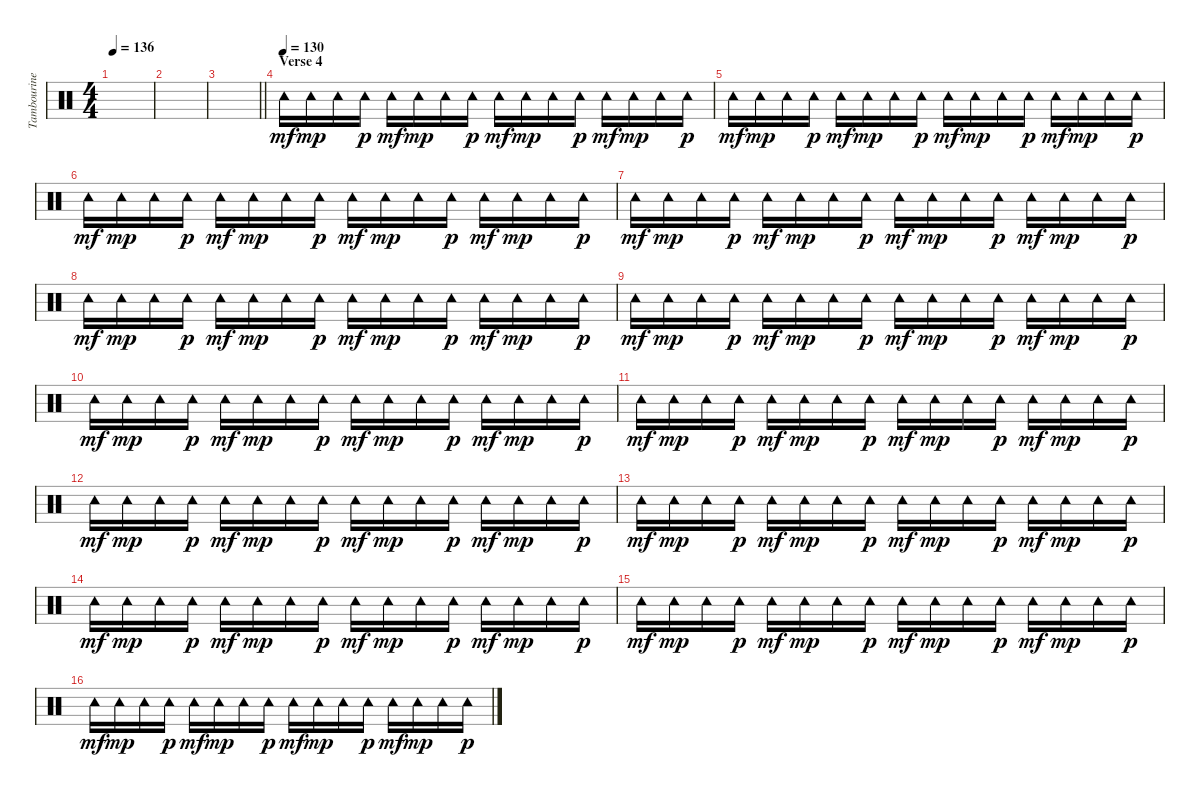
\track ("Tambourine" "Tambourine") {instrument percussion}
\staff {score}
\articulation defaults
\ts (4 4)
\tempo 136
\clef neutral
\ks c
|
|
\barLineRight lightlight
|
\section ("" "Verse 4")
\tempo (130)
"Tambourine (hit)".16{dy mf} "Tambourine (hit)".16{dy mp} "Tambourine (hit)".16 "Tambourine (hit)".16{dy p} "Tambourine (hit)".16{dy mf} "Tambourine (hit)".16{dy mp} "Tambourine (hit)".16 "Tambourine (hit)".16{dy p} "Tambourine (hit)".16{dy mf} "Tambourine (hit)".16{dy mp} "Tambourine (hit)".16 "Tambourine (hit)".16{dy p} "Tambourine (hit)".16{dy mf} "Tambourine (hit)".16{dy mp} "Tambourine (hit)".16 "Tambourine (hit)".16{dy p} |
"Tambourine (hit)".16{dy mf} "Tambourine (hit)".16{dy mp} "Tambourine (hit)".16 "Tambourine (hit)".16{dy p} "Tambourine (hit)".16{dy mf} "Tambourine (hit)".16{dy mp} "Tambourine (hit)".16 "Tambourine (hit)".16{dy p} "Tambourine (hit)".16{dy mf} "Tambourine (hit)".16{dy mp} "Tambourine (hit)".16 "Tambourine (hit)".16{dy p} "Tambourine (hit)".16{dy mf} "Tambourine (hit)".16{dy mp} "Tambourine (hit)".16 "Tambourine (hit)".16{dy p} |
"Tambourine (hit)".16{dy mf} "Tambourine (hit)".16{dy mp} "Tambourine (hit)".16 "Tambourine (hit)".16{dy p} "Tambourine (hit)".16{dy mf} "Tambourine (hit)".16{dy mp} "Tambourine (hit)".16 "Tambourine (hit)".16{dy p} "Tambourine (hit)".16{dy mf} "Tambourine (hit)".16{dy mp} "Tambourine (hit)".16 "Tambourine (hit)".16{dy p} "Tambourine (hit)".16{dy mf} "Tambourine (hit)".16{dy mp} "Tambourine (hit)".16 "Tambourine (hit)".16{dy p} |
"Tambourine (hit)".16{dy mf} "Tambourine (hit)".16{dy mp} "Tambourine (hit)".16 "Tambourine (hit)".16{dy p} "Tambourine (hit)".16{dy mf} "Tambourine (hit)".16{dy mp} "Tambourine (hit)".16 "Tambourine (hit)".16{dy p} "Tambourine (hit)".16{dy mf} "Tambourine (hit)".16{dy mp} "Tambourine (hit)".16 "Tambourine (hit)".16{dy p} "Tambourine (hit)".16{dy mf} "Tambourine (hit)".16{dy mp} "Tambourine (hit)".16 "Tambourine (hit)".16{dy p} |
"Tambourine (hit)".16{dy mf} "Tambourine (hit)".16{dy mp} "Tambourine (hit)".16 "Tambourine (hit)".16{dy p} "Tambourine (hit)".16{dy mf} "Tambourine (hit)".16{dy mp} "Tambourine (hit)".16 "Tambourine (hit)".16{dy p} "Tambourine (hit)".16{dy mf} "Tambourine (hit)".16{dy mp} "Tambourine (hit)".16 "Tambourine (hit)".16{dy p} "Tambourine (hit)".16{dy mf} "Tambourine (hit)".16{dy mp} "Tambourine (hit)".16 "Tambourine (hit)".16{dy p} |
"Tambourine (hit)".16{dy mf} "Tambourine (hit)".16{dy mp} "Tambourine (hit)".16 "Tambourine (hit)".16{dy p} "Tambourine (hit)".16{dy mf} "Tambourine (hit)".16{dy mp} "Tambourine (hit)".16 "Tambourine (hit)".16{dy p} "Tambourine (hit)".16{dy mf} "Tambourine (hit)".16{dy mp} "Tambourine (hit)".16 "Tambourine (hit)".16{dy p} "Tambourine (hit)".16{dy mf} "Tambourine (hit)".16{dy mp} "Tambourine (hit)".16 "Tambourine (hit)".16{dy p} |
"Tambourine (hit)".16{dy mf} "Tambourine (hit)".16{dy mp} "Tambourine (hit)".16 "Tambourine (hit)".16{dy p} "Tambourine (hit)".16{dy mf} "Tambourine (hit)".16{dy mp} "Tambourine (hit)".16 "Tambourine (hit)".16{dy p} "Tambourine (hit)".16{dy mf} "Tambourine (hit)".16{dy mp} "Tambourine (hit)".16 "Tambourine (hit)".16{dy p} "Tambourine (hit)".16{dy mf} "Tambourine (hit)".16{dy mp} "Tambourine (hit)".16 "Tambourine (hit)".16{dy p} |
"Tambourine (hit)".16{dy mf} "Tambourine (hit)".16{dy mp} "Tambourine (hit)".16 "Tambourine (hit)".16{dy p} "Tambourine (hit)".16{dy mf} "Tambourine (hit)".16{dy mp} "Tambourine (hit)".16 "Tambourine (hit)".16{dy p} "Tambourine (hit)".16{dy mf} "Tambourine (hit)".16{dy mp} "Tambourine (hit)".16 "Tambourine (hit)".16{dy p} "Tambourine (hit)".16{dy mf} "Tambourine (hit)".16{dy mp} "Tambourine (hit)".16 "Tambourine (hit)".16{dy p} |
"Tambourine (hit)".16{dy mf} "Tambourine (hit)".16{dy mp} "Tambourine (hit)".16 "Tambourine (hit)".16{dy p} "Tambourine (hit)".16{dy mf} "Tambourine (hit)".16{dy mp} "Tambourine (hit)".16 "Tambourine (hit)".16{dy p} "Tambourine (hit)".16{dy mf} "Tambourine (hit)".16{dy mp} "Tambourine (hit)".16 "Tambourine (hit)".16{dy p} "Tambourine (hit)".16{dy mf} "Tambourine (hit)".16{dy mp} "Tambourine (hit)".16 "Tambourine (hit)".16{dy p} |
"Tambourine (hit)".16{dy mf} "Tambourine (hit)".16{dy mp} "Tambourine (hit)".16 "Tambourine (hit)".16{dy p} "Tambourine (hit)".16{dy mf} "Tambourine (hit)".16{dy mp} "Tambourine (hit)".16 "Tambourine (hit)".16{dy p} "Tambourine (hit)".16{dy mf} "Tambourine (hit)".16{dy mp} "Tambourine (hit)".16 "Tambourine (hit)".16{dy p} "Tambourine (hit)".16{dy mf} "Tambourine (hit)".16{dy mp} "Tambourine (hit)".16 "Tambourine (hit)".16{dy p} |
"Tambourine (hit)".16{dy mf} "Tambourine (hit)".16{dy mp} "Tambourine (hit)".16 "Tambourine (hit)".16{dy p} "Tambourine (hit)".16{dy mf} "Tambourine (hit)".16{dy mp} "Tambourine (hit)".16 "Tambourine (hit)".16{dy p} "Tambourine (hit)".16{dy mf} "Tambourine (hit)".16{dy mp} "Tambourine (hit)".16 "Tambourine (hit)".16{dy p} "Tambourine (hit)".16{dy mf} "Tambourine (hit)".16{dy mp} "Tambourine (hit)".16 "Tambourine (hit)".16{dy p} |
"Tambourine (hit)".16{dy mf} "Tambourine (hit)".16{dy mp} "Tambourine (hit)".16 "Tambourine (hit)".16{dy p} "Tambourine (hit)".16{dy mf} "Tambourine (hit)".16{dy mp} "Tambourine (hit)".16 "Tambourine (hit)".16{dy p} "Tambourine (hit)".16{dy mf} "Tambourine (hit)".16{dy mp} "Tambourine (hit)".16 "Tambourine (hit)".16{dy p} "Tambourine (hit)".16{dy mf} "Tambourine (hit)".16{dy mp} "Tambourine (hit)".16 "Tambourine (hit)".16{dy p} |
"Tambourine (hit)".16{dy mf} "Tambourine (hit)".16{dy mp} "Tambourine (hit)".16 "Tambourine (hit)".16{dy p} "Tambourine (hit)".16{dy mf} "Tambourine (hit)".16{dy mp} "Tambourine (hit)".16 "Tambourine (hit)".16{dy p} "Tambourine (hit)".16{dy mf} "Tambourine (hit)".16{dy mp} "Tambourine (hit)".16 "Tambourine (hit)".16{dy p} "Tambourine (hit)".16{dy mf} "Tambourine (hit)".16{dy mp} "Tambourine (hit)".16 "Tambourine (hit)".16{dy p}
